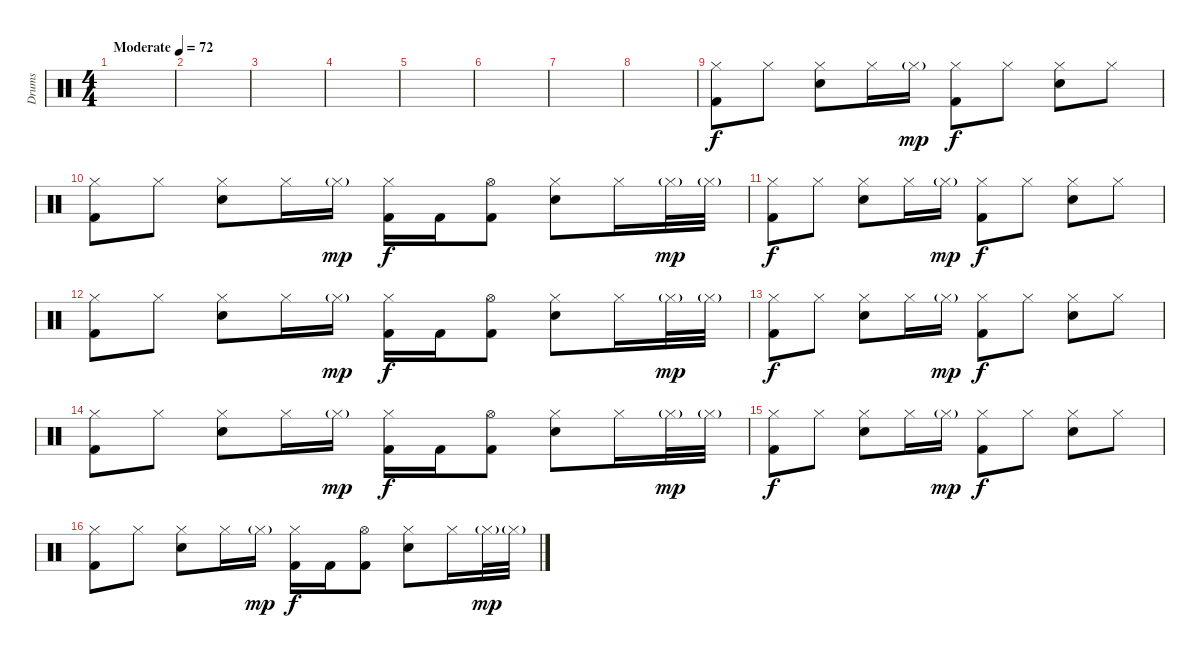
\track ("Drums" "Drums") {instrument percussion}
\staff {score}
\articulation defaults
\ts (4 4)
\tempo (72 "Moderate")
\clef neutral
\ks c
|
|
|
|
|
|
|
|
("Hi-Hat (closed)" "Kick (hit) 2").8 "Hi-Hat (closed)".8 ("Hi-Hat (closed)" "Electric Snare (hit)").8 "Hi-Hat (closed)".16 "Hi-Hat (closed)"{g}.16{dy mp} ("Hi-Hat (closed)" "Kick (hit) 2").8{dy f} "Hi-Hat (closed)".8 ("Hi-Hat (closed)" "Electric Snare (hit)").8 "Hi-Hat (closed)".8 |
("Hi-Hat (closed)" "Kick (hit) 2").8 "Hi-Hat (closed)".8 ("Hi-Hat (closed)" "Electric Snare (hit)").8 "Hi-Hat (closed)".16 "Hi-Hat (closed)"{g}.16{dy mp} ("Hi-Hat (closed)" "Kick (hit) 2").16{dy f} "Kick (hit) 2".16 ("Hi-Hat (open)" "Kick (hit) 2").8 ("Hi-Hat (closed)" "Electric Snare (hit)").8 "Hi-Hat (closed)".16 "Hi-Hat (closed)"{g}.32{dy mp} "Hi-Hat (closed)"{g}.32 |
("Hi-Hat (closed)" "Kick (hit) 2").8{dy f} "Hi-Hat (closed)".8 ("Hi-Hat (closed)" "Electric Snare (hit)").8 "Hi-Hat (closed)".16 "Hi-Hat (closed)"{g}.16{dy mp} ("Hi-Hat (closed)" "Kick (hit) 2").8{dy f} "Hi-Hat (closed)".8 ("Hi-Hat (closed)" "Electric Snare (hit)").8 "Hi-Hat (closed)".8 |
("Hi-Hat (closed)" "Kick (hit) 2").8 "Hi-Hat (closed)".8 ("Hi-Hat (closed)" "Electric Snare (hit)").8 "Hi-Hat (closed)".16 "Hi-Hat (closed)"{g}.16{dy mp} ("Hi-Hat (closed)" "Kick (hit) 2").16{dy f} "Kick (hit) 2".16 ("Hi-Hat (open)" "Kick (hit) 2").8 ("Hi-Hat (closed)" "Electric Snare (hit)").8 "Hi-Hat (closed)".16 "Hi-Hat (closed)"{g}.32{dy mp} "Hi-Hat (closed)"{g}.32 |
("Hi-Hat (closed)" "Kick (hit) 2").8{dy f} "Hi-Hat (closed)".8 ("Hi-Hat (closed)" "Electric Snare (hit)").8 "Hi-Hat (closed)".16 "Hi-Hat (closed)"{g}.16{dy mp} ("Hi-Hat (closed)" "Kick (hit) 2").8{dy f} "Hi-Hat (closed)".8 ("Hi-Hat (closed)" "Electric Snare (hit)").8 "Hi-Hat (closed)".8 |
("Hi-Hat (closed)" "Kick (hit) 2").8 "Hi-Hat (closed)".8 ("Hi-Hat (closed)" "Electric Snare (hit)").8 "Hi-Hat (closed)".16 "Hi-Hat (closed)"{g}.16{dy mp} ("Hi-Hat (closed)" "Kick (hit) 2").16{dy f} "Kick (hit) 2".16 ("Hi-Hat (open)" "Kick (hit) 2").8 ("Hi-Hat (closed)" "Electric Snare (hit)").8 "Hi-Hat (closed)".16 "Hi-Hat (closed)"{g}.32{dy mp} "Hi-Hat (closed)"{g}.32 |
("Hi-Hat (closed)" "Kick (hit) 2").8{dy f} "Hi-Hat (closed)".8 ("Hi-Hat (closed)" "Electric Snare (hit)").8 "Hi-Hat (closed)".16 "Hi-Hat (closed)"{g}.16{dy mp} ("Hi-Hat (closed)" "Kick (hit) 2").8{dy f} "Hi-Hat (closed)".8 ("Hi-Hat (closed)" "Electric Snare (hit)").8 "Hi-Hat (closed)".8 |
("Hi-Hat (closed)" "Kick (hit) 2").8 "Hi-Hat (closed)".8 ("Hi-Hat (closed)" "Electric Snare (hit)").8 "Hi-Hat (closed)".16 "Hi-Hat (closed)"{g}.16{dy mp} ("Hi-Hat (closed)" "Kick (hit) 2").16{dy f} "Kick (hit) 2".16 ("Hi-Hat (open)" "Kick (hit) 2").8 ("Hi-Hat (closed)" "Electric Snare (hit)").8 "Hi-Hat (closed)".16 "Hi-Hat (closed)"{g}.32{dy mp} "Hi-Hat (closed)"{g}.32
